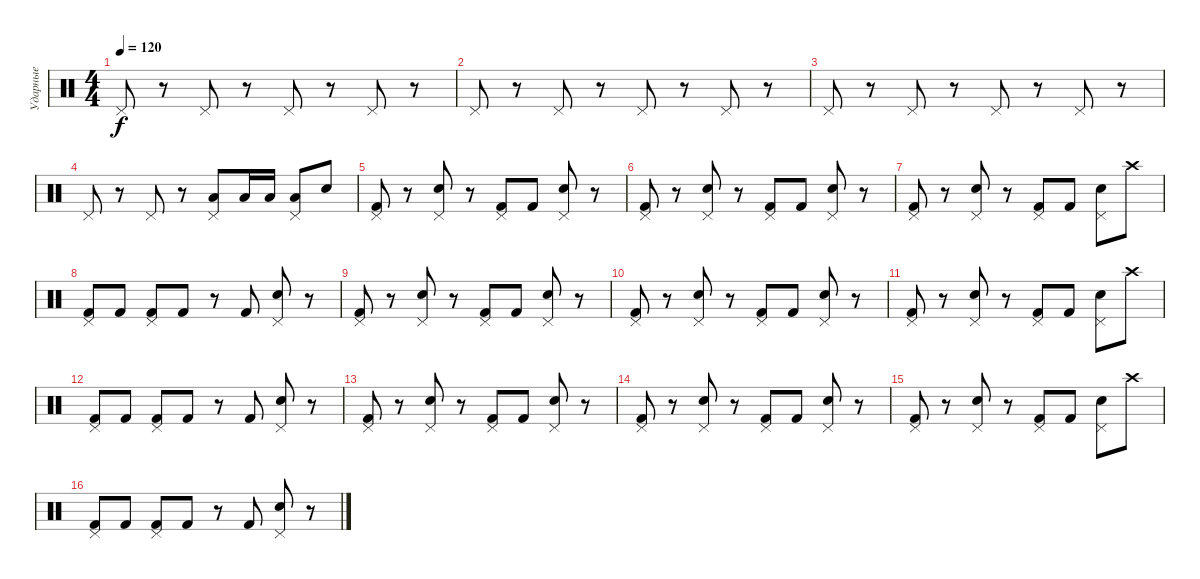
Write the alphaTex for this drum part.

\track ("Ударные" "Ударные") {instrument percussion}
\staff {score}
\articulation defaults
\ts (4 4)
\tempo 120
\clef neutral
\ks c "Pedal Hi-Hat (hit)".8{dy f}
r.8 "Pedal Hi-Hat (hit)".8 r.8 "Pedal Hi-Hat (hit)".8 r.8 "Pedal Hi-Hat (hit)".8 r.8 |
"Pedal Hi-Hat (hit)".8 r.8 "Pedal Hi-Hat (hit)".8 r.8 "Pedal Hi-Hat (hit)".8 r.8 "Pedal Hi-Hat (hit)".8 r.8 |
"Pedal Hi-Hat (hit)".8 r.8 "Pedal Hi-Hat (hit)".8 r.8 "Pedal Hi-Hat (hit)".8 r.8 "Pedal Hi-Hat (hit)".8 r.8 |
"Pedal Hi-Hat (hit)".8 r.8 "Pedal Hi-Hat (hit)".8 r.8 ("Pedal Hi-Hat (hit)" "Low Tom (hit)").8 "Low Tom (hit)".16 "Low Tom (hit)".16 ("Pedal Hi-Hat (hit)" "Low Floor Tom (hit)").8 "Snare (hit) 2".8 |
("Pedal Hi-Hat (hit)" "Kick (hit) 2").8 r.8 ("Pedal Hi-Hat (hit)" "Snare (hit) 2").8 r.8 ("Pedal Hi-Hat (hit)" "Kick (hit) 2").8 "Kick (hit) 2".8 ("Pedal Hi-Hat (hit)" "Snare (hit) 2").8 r.8 |
("Pedal Hi-Hat (hit)" "Kick (hit) 2").8 r.8 ("Pedal Hi-Hat (hit)" "Snare (hit) 2").8 r.8 ("Pedal Hi-Hat (hit)" "Kick (hit) 2").8 "Kick (hit) 2".8 ("Pedal Hi-Hat (hit)" "Snare (hit) 2").8 r.8 |
("Pedal Hi-Hat (hit)" "Kick (hit) 2").8 r.8 ("Pedal Hi-Hat (hit)" "Snare (hit) 2").8 r.8 ("Pedal Hi-Hat (hit)" "Kick (hit) 2").8 "Kick (hit) 2".8 ("Pedal Hi-Hat (hit)" "Snare (hit) 2").8 "Crash high (hit)".8 |
("Pedal Hi-Hat (hit)" "Kick (hit) 2").8 "Kick (hit) 2".8 ("Pedal Hi-Hat (hit)" "Kick (hit) 2").8 "Kick (hit) 2".8 r.8 "Kick (hit) 2".8 ("Pedal Hi-Hat (hit)" "Snare (hit) 2").8 r.8 |
("Pedal Hi-Hat (hit)" "Kick (hit) 2").8 r.8 ("Pedal Hi-Hat (hit)" "Snare (hit) 2").8 r.8 ("Pedal Hi-Hat (hit)" "Kick (hit) 2").8 "Kick (hit) 2".8 ("Pedal Hi-Hat (hit)" "Snare (hit) 2").8 r.8 |
("Pedal Hi-Hat (hit)" "Kick (hit) 2").8 r.8 ("Pedal Hi-Hat (hit)" "Snare (hit) 2").8 r.8 ("Pedal Hi-Hat (hit)" "Kick (hit) 2").8 "Kick (hit) 2".8 ("Pedal Hi-Hat (hit)" "Snare (hit) 2").8 r.8 |
("Pedal Hi-Hat (hit)" "Kick (hit) 2").8 r.8 ("Pedal Hi-Hat (hit)" "Snare (hit) 2").8 r.8 ("Pedal Hi-Hat (hit)" "Kick (hit) 2").8 "Kick (hit) 2".8 ("Pedal Hi-Hat (hit)" "Snare (hit) 2").8 "Crash high (hit)".8 |
("Pedal Hi-Hat (hit)" "Kick (hit) 2").8 "Kick (hit) 2".8 ("Pedal Hi-Hat (hit)" "Kick (hit) 2").8 "Kick (hit) 2".8 r.8 "Kick (hit) 2".8 ("Pedal Hi-Hat (hit)" "Snare (hit) 2").8 r.8 |
("Pedal Hi-Hat (hit)" "Kick (hit) 2").8 r.8 ("Pedal Hi-Hat (hit)" "Snare (hit) 2").8 r.8 ("Pedal Hi-Hat (hit)" "Kick (hit) 2").8 "Kick (hit) 2".8 ("Pedal Hi-Hat (hit)" "Snare (hit) 2").8 r.8 |
("Pedal Hi-Hat (hit)" "Kick (hit) 2").8 r.8 ("Pedal Hi-Hat (hit)" "Snare (hit) 2").8 r.8 ("Pedal Hi-Hat (hit)" "Kick (hit) 2").8 "Kick (hit) 2".8 ("Pedal Hi-Hat (hit)" "Snare (hit) 2").8 r.8 |
("Pedal Hi-Hat (hit)" "Kick (hit) 2").8 r.8 ("Pedal Hi-Hat (hit)" "Snare (hit) 2").8 r.8 ("Pedal Hi-Hat (hit)" "Kick (hit) 2").8 "Kick (hit) 2".8 ("Pedal Hi-Hat (hit)" "Snare (hit) 2").8 "Crash high (hit)".8 |
("Pedal Hi-Hat (hit)" "Kick (hit) 2").8 "Kick (hit) 2".8 ("Pedal Hi-Hat (hit)" "Kick (hit) 2").8 "Kick (hit) 2".8 r.8 "Kick (hit) 2".8 ("Pedal Hi-Hat (hit)" "Snare (hit) 2").8 r.8
